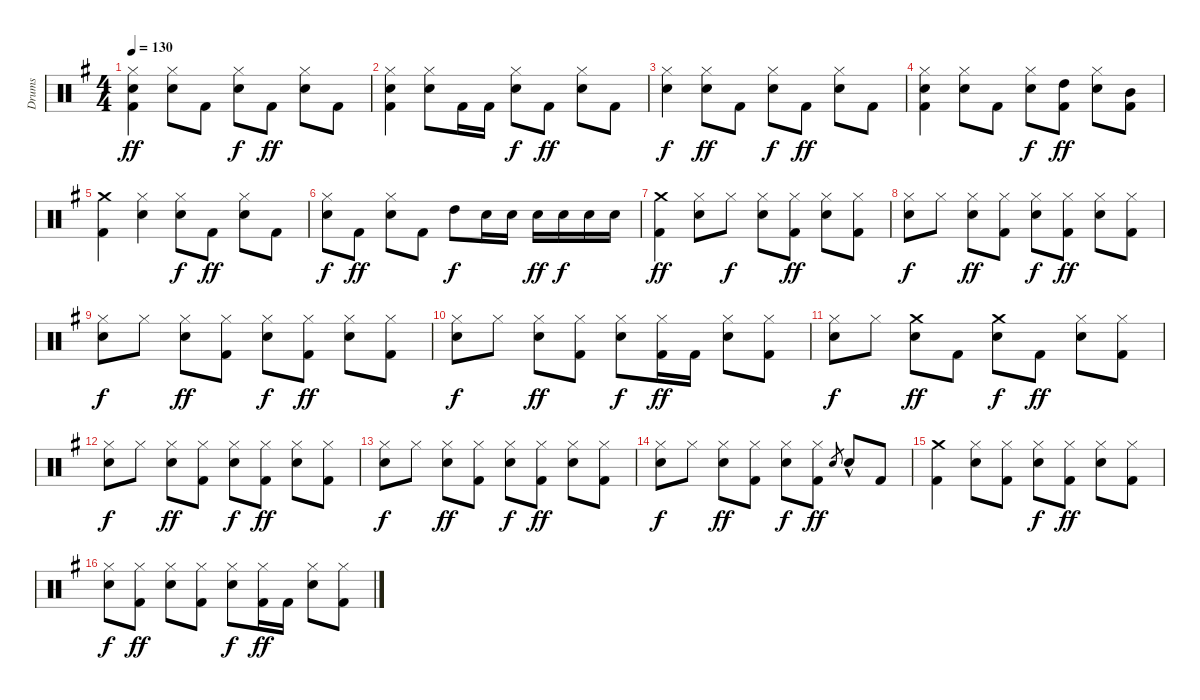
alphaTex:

\track ("Drums" "Drums") {instrument percussion}
\staff {score}
\articulation defaults
\ts (4 4)
\tempo 130
\clef neutral
\ks g
("Kick (hit) 2" "Snare (hit) 2" "Hi-Hat (closed)").4{dy ff} ("Snare (hit) 2" "Hi-Hat (closed)").8 "Kick (hit) 2".8 ("Snare (hit) 2" "Hi-Hat (closed)").8{dy f} "Kick (hit) 2".8{dy ff} ("Snare (hit) 2" "Hi-Hat (closed)").8 "Kick (hit) 2".8 |
("Kick (hit) 2" "Snare (hit) 2" "Hi-Hat (closed)").4 ("Snare (hit) 2" "Hi-Hat (closed)").8 "Kick (hit) 2".16 "Kick (hit) 2".16 ("Snare (hit) 2" "Hi-Hat (closed)").8{dy f} "Kick (hit) 2".8{dy ff} ("Snare (hit) 2" "Hi-Hat (closed)").8 "Kick (hit) 2".8 |
("Snare (hit) 2" "Hi-Hat (closed)").4{dy f} ("Snare (hit) 2" "Hi-Hat (closed)").8{dy ff} "Kick (hit) 2".8 ("Snare (hit) 2" "Hi-Hat (closed)").8{dy f} "Kick (hit) 2".8{dy ff} ("Snare (hit) 2" "Hi-Hat (closed)").8 "Kick (hit) 2".8 |
("Kick (hit) 2" "Snare (hit) 2" "Hi-Hat (closed)").4 ("Snare (hit) 2" "Hi-Hat (closed)").8 "Kick (hit) 2".8 ("Snare (hit) 2" "Hi-Hat (closed)").8{dy f} ("Kick (hit) 2" "High Tom (hit)").8{dy ff} ("Snare (hit) 2" "Hi-Hat (closed)").8 ("Kick (hit) 2" "Mid Tom (hit)").8 |
("Kick (hit) 2" "Crash medium (hit)").4 ("Snare (hit) 2" "Hi-Hat (closed)").4 ("Snare (hit) 2" "Hi-Hat (closed)").8{dy f} "Kick (hit) 2".8{dy ff} ("Snare (hit) 2" "Hi-Hat (closed)").8 "Kick (hit) 2".8 |
("Snare (hit) 2" "Hi-Hat (closed)").8{dy f} "Kick (hit) 2".8{dy ff} ("Snare (hit) 2" "Hi-Hat (closed)").8 "Kick (hit) 2".8 "High Tom (hit)".8{dy f} "Snare (hit) 2".16 "Snare (hit) 2".16 "Snare (hit) 2".16{dy ff} "Snare (hit) 2".16{dy f} "Snare (hit) 2".16 "Snare (hit) 2".16 |
("Kick (hit) 2" "Crash medium (hit)").4{dy ff} ("Snare (hit) 2" "Hi-Hat (closed)").8 "Hi-Hat (closed)".8{dy f} ("Snare (hit) 2" "Hi-Hat (closed)").8 ("Kick (hit) 2" "Hi-Hat (closed)").8{dy ff} ("Snare (hit) 2" "Hi-Hat (closed)").8 ("Kick (hit) 2" "Hi-Hat (closed)").8 |
("Snare (hit) 2" "Hi-Hat (closed)").8{dy f} "Hi-Hat (closed)".8 ("Snare (hit) 2" "Hi-Hat (closed)").8{dy ff} ("Kick (hit) 2" "Hi-Hat (closed)").8 ("Snare (hit) 2" "Hi-Hat (closed)").8{dy f} ("Kick (hit) 2" "Hi-Hat (closed)").8{dy ff} ("Snare (hit) 2" "Hi-Hat (closed)").8 ("Kick (hit) 2" "Hi-Hat (closed)").8 |
("Snare (hit) 2" "Hi-Hat (closed)").8{dy f} "Hi-Hat (closed)".8 ("Snare (hit) 2" "Hi-Hat (closed)").8{dy ff} ("Kick (hit) 2" "Hi-Hat (closed)").8 ("Snare (hit) 2" "Hi-Hat (closed)").8{dy f} ("Kick (hit) 2" "Hi-Hat (closed)").8{dy ff} ("Snare (hit) 2" "Hi-Hat (closed)").8 ("Kick (hit) 2" "Hi-Hat (closed)").8 |
("Snare (hit) 2" "Hi-Hat (closed)").8{dy f} "Hi-Hat (closed)".8 ("Snare (hit) 2" "Hi-Hat (closed)").8{dy ff} ("Kick (hit) 2" "Hi-Hat (closed)").8 ("Snare (hit) 2" "Hi-Hat (closed)").8{dy f} ("Kick (hit) 2" "Hi-Hat (closed)").16{dy ff} "Kick (hit) 2".16 ("Snare (hit) 2" "Hi-Hat (closed)").8 ("Kick (hit) 2" "Hi-Hat (closed)").8 |
("Snare (hit) 2" "Hi-Hat (closed)").8{dy f} "Hi-Hat (closed)".8 ("Snare (hit) 2" "Crash medium (hit)").8{dy ff} "Kick (hit) 2".8 ("Snare (hit) 2" "Crash medium (hit)").8{dy f} "Kick (hit) 2".8{dy ff} ("Snare (hit) 2" "Hi-Hat (closed)").8 ("Kick (hit) 2" "Hi-Hat (closed)").8 |
("Snare (hit) 2" "Hi-Hat (closed)").8{dy f} "Hi-Hat (closed)".8 ("Snare (hit) 2" "Hi-Hat (closed)").8{dy ff} ("Kick (hit) 2" "Hi-Hat (closed)").8 ("Snare (hit) 2" "Hi-Hat (closed)").8{dy f} ("Kick (hit) 2" "Hi-Hat (closed)").8{dy ff} ("Snare (hit) 2" "Hi-Hat (closed)").8 ("Kick (hit) 2" "Hi-Hat (closed)").8 |
("Snare (hit) 2" "Hi-Hat (closed)").8{dy f} "Hi-Hat (closed)".8 ("Snare (hit) 2" "Hi-Hat (closed)").8{dy ff} ("Kick (hit) 2" "Hi-Hat (closed)").8 ("Snare (hit) 2" "Hi-Hat (closed)").8{dy f} ("Kick (hit) 2" "Hi-Hat (closed)").8{dy ff} ("Snare (hit) 2" "Hi-Hat (closed)").8 ("Kick (hit) 2" "Hi-Hat (closed)").8 |
("Snare (hit) 2" "Hi-Hat (closed)").8{dy f} "Hi-Hat (closed)".8 ("Snare (hit) 2" "Hi-Hat (closed)").8{dy ff} ("Kick (hit) 2" "Hi-Hat (closed)").8 ("Snare (hit) 2" "Hi-Hat (closed)").8{dy f} ("Kick (hit) 2" "Hi-Hat (closed)").8{dy ff} "Snare (hit) 2".8{gr} "Snare (hit) 2"{hac}.8 "Kick (hit) 2".8 |
("Kick (hit) 2" "Crash medium (hit)").4 ("Snare (hit) 2" "Hi-Hat (closed)").8 ("Kick (hit) 2" "Hi-Hat (closed)").8 ("Snare (hit) 2" "Hi-Hat (closed)").8{dy f} ("Kick (hit) 2" "Hi-Hat (closed)").8{dy ff} ("Snare (hit) 2" "Hi-Hat (closed)").8 ("Kick (hit) 2" "Hi-Hat (closed)").8 |
("Snare (hit) 2" "Hi-Hat (closed)").8{dy f} ("Kick (hit) 2" "Hi-Hat (closed)").8{dy ff} ("Snare (hit) 2" "Hi-Hat (closed)").8 ("Kick (hit) 2" "Hi-Hat (closed)").8 ("Snare (hit) 2" "Hi-Hat (closed)").8{dy f} ("Kick (hit) 2" "Hi-Hat (closed)").16{dy ff} "Kick (hit) 2".16 ("Snare (hit) 2" "Hi-Hat (closed)").8 ("Kick (hit) 2" "Hi-Hat (closed)").8
